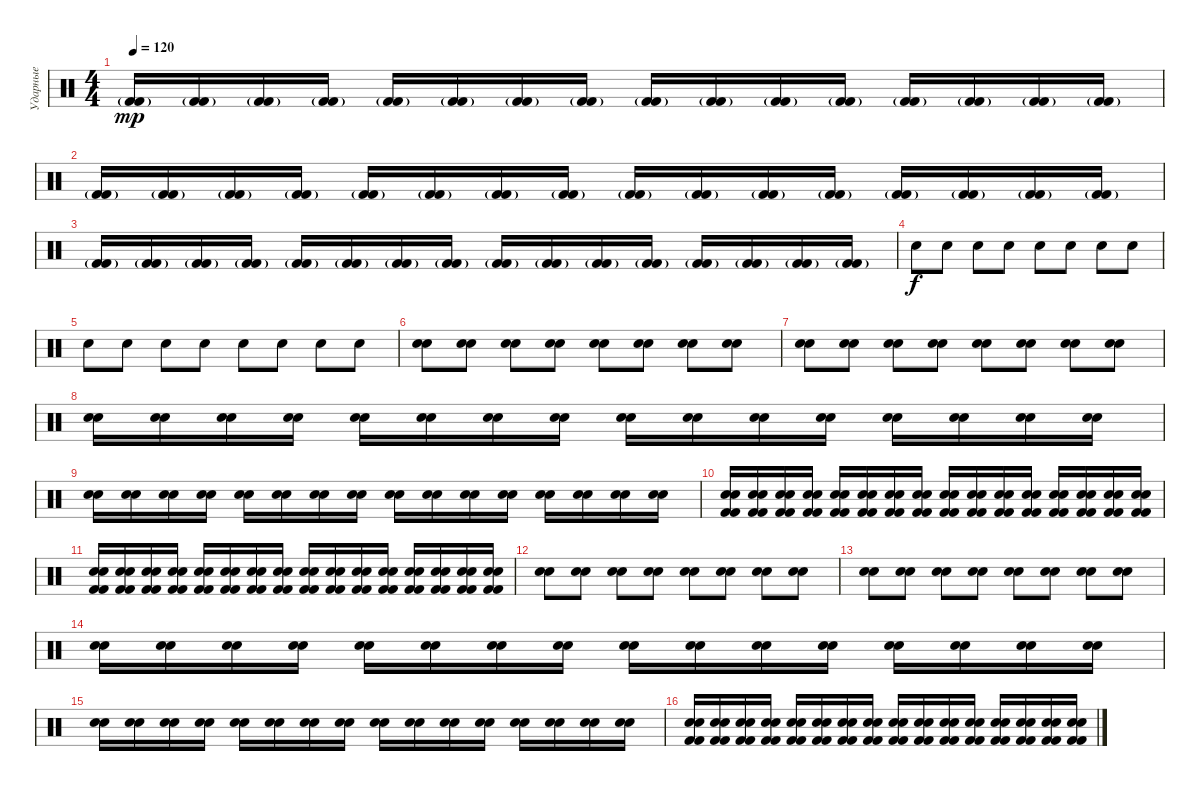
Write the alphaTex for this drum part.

\track ("Ударные" "Ударные") {instrument percussion}
\staff {score}
\articulation defaults
\ts (4 4)
\tempo 120
\clef neutral
\ks c
("Kick (hit) 2"{g} "Kick (hit) 2"{g}).16{dy mp} ("Kick (hit) 2"{g} "Kick (hit) 2"{g}).16 ("Kick (hit) 2"{g} "Kick (hit) 2"{g}).16 ("Kick (hit) 2"{g} "Kick (hit) 2"{g}).16 ("Kick (hit) 2"{g} "Kick (hit) 2"{g}).16 ("Kick (hit) 2"{g} "Kick (hit) 2"{g}).16 ("Kick (hit) 2"{g} "Kick (hit) 2"{g}).16 ("Kick (hit) 2"{g} "Kick (hit) 2"{g}).16 ("Kick (hit) 2"{g} "Kick (hit) 2"{g}).16 ("Kick (hit) 2"{g} "Kick (hit) 2"{g}).16 ("Kick (hit) 2"{g} "Kick (hit) 2"{g}).16 ("Kick (hit) 2"{g} "Kick (hit) 2"{g}).16 ("Kick (hit) 2"{g} "Kick (hit) 2"{g}).16 ("Kick (hit) 2"{g} "Kick (hit) 2"{g}).16 ("Kick (hit) 2"{g} "Kick (hit) 2"{g}).16 ("Kick (hit) 2"{g} "Kick (hit) 2"{g}).16 |
("Kick (hit) 2"{g} "Kick (hit) 2"{g}).16 ("Kick (hit) 2"{g} "Kick (hit) 2"{g}).16 ("Kick (hit) 2"{g} "Kick (hit) 2"{g}).16 ("Kick (hit) 2"{g} "Kick (hit) 2"{g}).16 ("Kick (hit) 2"{g} "Kick (hit) 2"{g}).16 ("Kick (hit) 2"{g} "Kick (hit) 2"{g}).16 ("Kick (hit) 2"{g} "Kick (hit) 2"{g}).16 ("Kick (hit) 2"{g} "Kick (hit) 2"{g}).16 ("Kick (hit) 2"{g} "Kick (hit) 2"{g}).16 ("Kick (hit) 2"{g} "Kick (hit) 2"{g}).16 ("Kick (hit) 2"{g} "Kick (hit) 2"{g}).16 ("Kick (hit) 2"{g} "Kick (hit) 2"{g}).16 ("Kick (hit) 2"{g} "Kick (hit) 2"{g}).16 ("Kick (hit) 2"{g} "Kick (hit) 2"{g}).16 ("Kick (hit) 2"{g} "Kick (hit) 2"{g}).16 ("Kick (hit) 2"{g} "Kick (hit) 2"{g}).16 |
("Kick (hit) 2"{g} "Kick (hit) 2"{g}).16 ("Kick (hit) 2"{g} "Kick (hit) 2"{g}).16 ("Kick (hit) 2"{g} "Kick (hit) 2"{g}).16 ("Kick (hit) 2"{g} "Kick (hit) 2"{g}).16 ("Kick (hit) 2"{g} "Kick (hit) 2"{g}).16 ("Kick (hit) 2"{g} "Kick (hit) 2"{g}).16 ("Kick (hit) 2"{g} "Kick (hit) 2"{g}).16 ("Kick (hit) 2"{g} "Kick (hit) 2"{g}).16 ("Kick (hit) 2"{g} "Kick (hit) 2"{g}).16 ("Kick (hit) 2"{g} "Kick (hit) 2"{g}).16 ("Kick (hit) 2"{g} "Kick (hit) 2"{g}).16 ("Kick (hit) 2"{g} "Kick (hit) 2"{g}).16 ("Kick (hit) 2"{g} "Kick (hit) 2"{g}).16 ("Kick (hit) 2"{g} "Kick (hit) 2"{g}).16 ("Kick (hit) 2"{g} "Kick (hit) 2"{g}).16 ("Kick (hit) 2"{g} "Kick (hit) 2"{g}).16 |
"Electric Snare (hit)".8{dy f} "Electric Snare (hit)".8 "Electric Snare (hit)".8 "Electric Snare (hit)".8 "Electric Snare (hit)".8 "Electric Snare (hit)".8 "Electric Snare (hit)".8 "Electric Snare (hit)".8 |
"Electric Snare (hit)".8 "Electric Snare (hit)".8 "Electric Snare (hit)".8 "Electric Snare (hit)".8 "Electric Snare (hit)".8 "Electric Snare (hit)".8 "Electric Snare (hit)".8 "Electric Snare (hit)".8 |
("Electric Snare (hit)" "Electric Snare (hit)").8 ("Electric Snare (hit)" "Electric Snare (hit)").8 ("Electric Snare (hit)" "Electric Snare (hit)").8 ("Electric Snare (hit)" "Electric Snare (hit)").8 ("Electric Snare (hit)" "Electric Snare (hit)").8 ("Electric Snare (hit)" "Electric Snare (hit)").8 ("Electric Snare (hit)" "Electric Snare (hit)").8 ("Electric Snare (hit)" "Electric Snare (hit)").8 |
("Electric Snare (hit)" "Electric Snare (hit)").8 ("Electric Snare (hit)" "Electric Snare (hit)").8 ("Electric Snare (hit)" "Electric Snare (hit)").8 ("Electric Snare (hit)" "Electric Snare (hit)").8 ("Electric Snare (hit)" "Electric Snare (hit)").8 ("Electric Snare (hit)" "Electric Snare (hit)").8 ("Electric Snare (hit)" "Electric Snare (hit)").8 ("Electric Snare (hit)" "Electric Snare (hit)").8 |
("Electric Snare (hit)" "Electric Snare (hit)").16 ("Electric Snare (hit)" "Electric Snare (hit)").16 ("Electric Snare (hit)" "Electric Snare (hit)").16 ("Electric Snare (hit)" "Electric Snare (hit)").16 ("Electric Snare (hit)" "Electric Snare (hit)").16 ("Electric Snare (hit)" "Electric Snare (hit)").16 ("Electric Snare (hit)" "Electric Snare (hit)").16 ("Electric Snare (hit)" "Electric Snare (hit)").16 ("Electric Snare (hit)" "Electric Snare (hit)").16 ("Electric Snare (hit)" "Electric Snare (hit)").16 ("Electric Snare (hit)" "Electric Snare (hit)").16 ("Electric Snare (hit)" "Electric Snare (hit)").16 ("Electric Snare (hit)" "Electric Snare (hit)").16 ("Electric Snare (hit)" "Electric Snare (hit)").16 ("Electric Snare (hit)" "Electric Snare (hit)").16 ("Electric Snare (hit)" "Electric Snare (hit)").16 |
("Electric Snare (hit)" "Electric Snare (hit)").16 ("Electric Snare (hit)" "Electric Snare (hit)").16 ("Electric Snare (hit)" "Electric Snare (hit)").16 ("Electric Snare (hit)" "Electric Snare (hit)").16 ("Electric Snare (hit)" "Electric Snare (hit)").16 ("Electric Snare (hit)" "Electric Snare (hit)").16 ("Electric Snare (hit)" "Electric Snare (hit)").16 ("Electric Snare (hit)" "Electric Snare (hit)").16 ("Electric Snare (hit)" "Electric Snare (hit)").16 ("Electric Snare (hit)" "Electric Snare (hit)").16 ("Electric Snare (hit)" "Electric Snare (hit)").16 ("Electric Snare (hit)" "Electric Snare (hit)").16 ("Electric Snare (hit)" "Electric Snare (hit)").16 ("Electric Snare (hit)" "Electric Snare (hit)").16 ("Electric Snare (hit)" "Electric Snare (hit)").16 ("Electric Snare (hit)" "Electric Snare (hit)").16 |
("Electric Snare (hit)" "Electric Snare (hit)" "Kick (hit) 2" "Kick (hit) 2").16 ("Electric Snare (hit)" "Electric Snare (hit)" "Kick (hit) 2" "Kick (hit) 2").16 ("Electric Snare (hit)" "Electric Snare (hit)" "Kick (hit) 2" "Kick (hit) 2").16 ("Electric Snare (hit)" "Electric Snare (hit)" "Kick (hit) 2" "Kick (hit) 2").16 ("Electric Snare (hit)" "Electric Snare (hit)" "Kick (hit) 2" "Kick (hit) 2").16 ("Electric Snare (hit)" "Electric Snare (hit)" "Kick (hit) 2" "Kick (hit) 2").16 ("Electric Snare (hit)" "Electric Snare (hit)" "Kick (hit) 2" "Kick (hit) 2").16 ("Electric Snare (hit)" "Electric Snare (hit)" "Kick (hit) 2" "Kick (hit) 2").16 ("Electric Snare (hit)" "Electric Snare (hit)" "Kick (hit) 2" "Kick (hit) 2").16 ("Electric Snare (hit)" "Electric Snare (hit)" "Kick (hit) 2" "Kick (hit) 2").16 ("Electric Snare (hit)" "Electric Snare (hit)" "Kick (hit) 2" "Kick (hit) 2").16 ("Electric Snare (hit)" "Electric Snare (hit)" "Kick (hit) 2" "Kick (hit) 2").16 ("Electric Snare (hit)" "Electric Snare (hit)" "Kick (hit) 2" "Kick (hit) 2").16 ("Electric Snare (hit)" "Electric Snare (hit)" "Kick (hit) 2" "Kick (hit) 2").16 ("Electric Snare (hit)" "Electric Snare (hit)" "Kick (hit) 2" "Kick (hit) 2").16 ("Electric Snare (hit)" "Electric Snare (hit)" "Kick (hit) 2" "Kick (hit) 2").16 |
("Electric Snare (hit)" "Electric Snare (hit)" "Kick (hit) 2" "Kick (hit) 2").16 ("Electric Snare (hit)" "Electric Snare (hit)" "Kick (hit) 2" "Kick (hit) 2").16 ("Electric Snare (hit)" "Electric Snare (hit)" "Kick (hit) 2" "Kick (hit) 2").16 ("Electric Snare (hit)" "Electric Snare (hit)" "Kick (hit) 2" "Kick (hit) 2").16 ("Electric Snare (hit)" "Electric Snare (hit)" "Kick (hit) 2" "Kick (hit) 2").16 ("Electric Snare (hit)" "Electric Snare (hit)" "Kick (hit) 2" "Kick (hit) 2").16 ("Electric Snare (hit)" "Electric Snare (hit)" "Kick (hit) 2" "Kick (hit) 2").16 ("Electric Snare (hit)" "Electric Snare (hit)" "Kick (hit) 2" "Kick (hit) 2").16 ("Electric Snare (hit)" "Electric Snare (hit)" "Kick (hit) 2" "Kick (hit) 2").16 ("Electric Snare (hit)" "Electric Snare (hit)" "Kick (hit) 2" "Kick (hit) 2").16 ("Electric Snare (hit)" "Electric Snare (hit)" "Kick (hit) 2" "Kick (hit) 2").16 ("Electric Snare (hit)" "Electric Snare (hit)" "Kick (hit) 2" "Kick (hit) 2").16 ("Electric Snare (hit)" "Electric Snare (hit)" "Kick (hit) 2" "Kick (hit) 2").16 ("Electric Snare (hit)" "Electric Snare (hit)" "Kick (hit) 2" "Kick (hit) 2").16 ("Electric Snare (hit)" "Electric Snare (hit)" "Kick (hit) 2" "Kick (hit) 2").16 ("Electric Snare (hit)" "Electric Snare (hit)" "Kick (hit) 2" "Kick (hit) 2").16 |
("Electric Snare (hit)" "Electric Snare (hit)").8 ("Electric Snare (hit)" "Electric Snare (hit)").8 ("Electric Snare (hit)" "Electric Snare (hit)").8 ("Electric Snare (hit)" "Electric Snare (hit)").8 ("Electric Snare (hit)" "Electric Snare (hit)").8 ("Electric Snare (hit)" "Electric Snare (hit)").8 ("Electric Snare (hit)" "Electric Snare (hit)").8 ("Electric Snare (hit)" "Electric Snare (hit)").8 |
("Electric Snare (hit)" "Electric Snare (hit)").8 ("Electric Snare (hit)" "Electric Snare (hit)").8 ("Electric Snare (hit)" "Electric Snare (hit)").8 ("Electric Snare (hit)" "Electric Snare (hit)").8 ("Electric Snare (hit)" "Electric Snare (hit)").8 ("Electric Snare (hit)" "Electric Snare (hit)").8 ("Electric Snare (hit)" "Electric Snare (hit)").8 ("Electric Snare (hit)" "Electric Snare (hit)").8 |
("Electric Snare (hit)" "Electric Snare (hit)").16 ("Electric Snare (hit)" "Electric Snare (hit)").16 ("Electric Snare (hit)" "Electric Snare (hit)").16 ("Electric Snare (hit)" "Electric Snare (hit)").16 ("Electric Snare (hit)" "Electric Snare (hit)").16 ("Electric Snare (hit)" "Electric Snare (hit)").16 ("Electric Snare (hit)" "Electric Snare (hit)").16 ("Electric Snare (hit)" "Electric Snare (hit)").16 ("Electric Snare (hit)" "Electric Snare (hit)").16 ("Electric Snare (hit)" "Electric Snare (hit)").16 ("Electric Snare (hit)" "Electric Snare (hit)").16 ("Electric Snare (hit)" "Electric Snare (hit)").16 ("Electric Snare (hit)" "Electric Snare (hit)").16 ("Electric Snare (hit)" "Electric Snare (hit)").16 ("Electric Snare (hit)" "Electric Snare (hit)").16 ("Electric Snare (hit)" "Electric Snare (hit)").16 |
("Electric Snare (hit)" "Electric Snare (hit)").16 ("Electric Snare (hit)" "Electric Snare (hit)").16 ("Electric Snare (hit)" "Electric Snare (hit)").16 ("Electric Snare (hit)" "Electric Snare (hit)").16 ("Electric Snare (hit)" "Electric Snare (hit)").16 ("Electric Snare (hit)" "Electric Snare (hit)").16 ("Electric Snare (hit)" "Electric Snare (hit)").16 ("Electric Snare (hit)" "Electric Snare (hit)").16 ("Electric Snare (hit)" "Electric Snare (hit)").16 ("Electric Snare (hit)" "Electric Snare (hit)").16 ("Electric Snare (hit)" "Electric Snare (hit)").16 ("Electric Snare (hit)" "Electric Snare (hit)").16 ("Electric Snare (hit)" "Electric Snare (hit)").16 ("Electric Snare (hit)" "Electric Snare (hit)").16 ("Electric Snare (hit)" "Electric Snare (hit)").16 ("Electric Snare (hit)" "Electric Snare (hit)").16 |
("Electric Snare (hit)" "Electric Snare (hit)" "Kick (hit) 2" "Kick (hit) 2").16 ("Electric Snare (hit)" "Electric Snare (hit)" "Kick (hit) 2" "Kick (hit) 2").16 ("Electric Snare (hit)" "Electric Snare (hit)" "Kick (hit) 2" "Kick (hit) 2").16 ("Electric Snare (hit)" "Electric Snare (hit)" "Kick (hit) 2" "Kick (hit) 2").16 ("Electric Snare (hit)" "Electric Snare (hit)" "Kick (hit) 2" "Kick (hit) 2").16 ("Electric Snare (hit)" "Electric Snare (hit)" "Kick (hit) 2" "Kick (hit) 2").16 ("Electric Snare (hit)" "Electric Snare (hit)" "Kick (hit) 2" "Kick (hit) 2").16 ("Electric Snare (hit)" "Electric Snare (hit)" "Kick (hit) 2" "Kick (hit) 2").16 ("Electric Snare (hit)" "Electric Snare (hit)" "Kick (hit) 2" "Kick (hit) 2").16 ("Electric Snare (hit)" "Electric Snare (hit)" "Kick (hit) 2" "Kick (hit) 2").16 ("Electric Snare (hit)" "Electric Snare (hit)" "Kick (hit) 2" "Kick (hit) 2").16 ("Electric Snare (hit)" "Electric Snare (hit)" "Kick (hit) 2" "Kick (hit) 2").16 ("Electric Snare (hit)" "Electric Snare (hit)" "Kick (hit) 2" "Kick (hit) 2").16 ("Electric Snare (hit)" "Electric Snare (hit)" "Kick (hit) 2" "Kick (hit) 2").16 ("Electric Snare (hit)" "Electric Snare (hit)" "Kick (hit) 2" "Kick (hit) 2").16 ("Electric Snare (hit)" "Electric Snare (hit)" "Kick (hit) 2" "Kick (hit) 2").16
